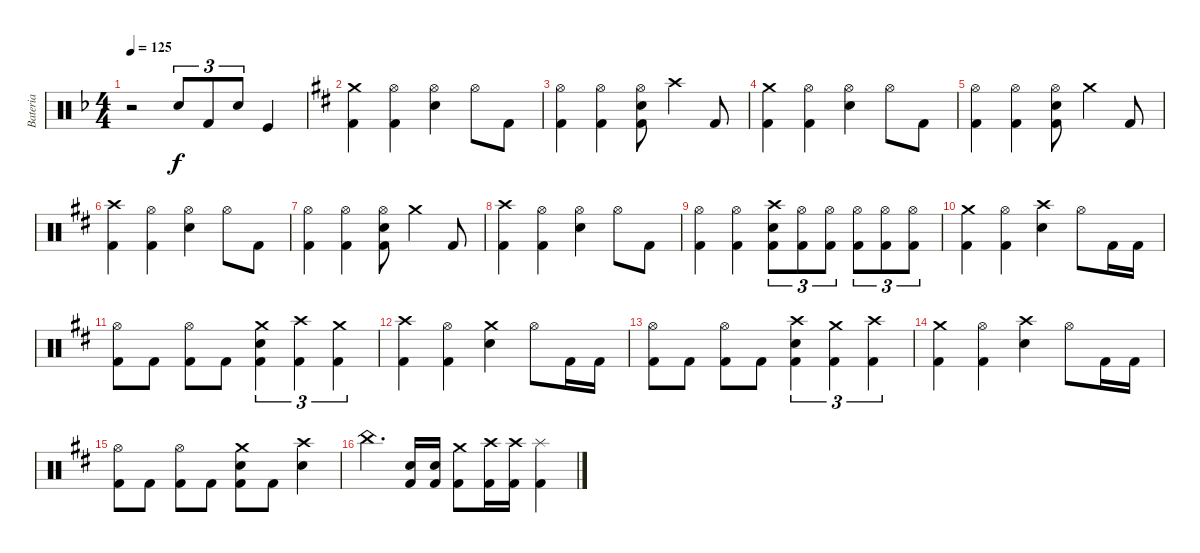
\track ("Bateria" "Bateria") {instrument percussion}
\staff {score}
\articulation defaults
\ts (4 4)
\tempo 125
\clef neutral
\ks f
r.2{dy f volume 4} "Electric Snare (hit)".8{tu (3 2)} "Kick (hit) 2".8{tu (3 2)} "Snare (hit) 2".8{tu (3 2)} "Kick (hit)".4 |
\ks d
("Crash medium (hit)" "Kick (hit) 2").4 ("Hi-Hat (open)" "Kick (hit) 2").4 ("Hi-Hat (open)" "Electric Snare (hit)").4 "Hi-Hat (open)".8 "Kick (hit) 2".8 |
("Hi-Hat (open)" "Kick (hit) 2").4 ("Hi-Hat (open)" "Kick (hit) 2").4 ("Hi-Hat (open)" "Electric Snare (hit)" "Kick (hit) 2").8 "Crash high (hit)".4 "Kick (hit) 2".8 |
("Crash medium (hit)" "Kick (hit) 2").4 ("Hi-Hat (open)" "Kick (hit) 2").4 ("Hi-Hat (open)" "Electric Snare (hit)").4 "Hi-Hat (open)".8 "Kick (hit) 2".8 |
("Hi-Hat (open)" "Kick (hit) 2").4 ("Hi-Hat (open)" "Kick (hit) 2").4 ("Hi-Hat (open)" "Electric Snare (hit)" "Kick (hit) 2").8 "Crash medium (hit)".4 "Kick (hit) 2".8 |
("Crash high (hit)" "Kick (hit) 2").4 ("Hi-Hat (open)" "Kick (hit) 2").4 ("Hi-Hat (open)" "Electric Snare (hit)").4 "Hi-Hat (open)".8 "Kick (hit) 2".8 |
("Hi-Hat (open)" "Kick (hit) 2").4 ("Hi-Hat (open)" "Kick (hit) 2").4 ("Hi-Hat (open)" "Electric Snare (hit)" "Kick (hit) 2").8 "Crash medium (hit)".4 "Kick (hit) 2".8 |
("Crash high (hit)" "Kick (hit) 2").4 ("Hi-Hat (open)" "Kick (hit) 2").4 ("Hi-Hat (open)" "Electric Snare (hit)").4 "Hi-Hat (open)".8 "Kick (hit) 2".8 |
("Hi-Hat (open)" "Kick (hit) 2").4 ("Hi-Hat (open)" "Kick (hit) 2").4 ("Crash high (hit)" "Electric Snare (hit)" "Kick (hit) 2").8{tu (3 2)} ("Hi-Hat (open)" "Kick (hit) 2").8{tu (3 2)} ("Hi-Hat (open)" "Kick (hit) 2").8{tu (3 2)} ("Hi-Hat (open)" "Kick (hit) 2").8{tu (3 2)} ("Hi-Hat (open)" "Kick (hit) 2").8{tu (3 2)} ("Hi-Hat (open)" "Kick (hit) 2").8{tu (3 2)} |
("Crash medium (hit)" "Kick (hit) 2").4 ("Hi-Hat (open)" "Kick (hit) 2").4 ("Crash high (hit)" "Electric Snare (hit)").4 "Hi-Hat (open)".8 "Kick (hit) 2".16 "Kick (hit) 2".16 |
("Hi-Hat (open)" "Kick (hit) 2").8 "Kick (hit) 2".8 ("Hi-Hat (open)" "Kick (hit) 2").8 "Kick (hit) 2".8 ("Crash medium (hit)" "Electric Snare (hit)" "Kick (hit) 2").4{tu (3 2)} ("Crash high (hit)" "Kick (hit) 2").4{tu (3 2)} ("Crash medium (hit)" "Kick (hit) 2").4{tu (3 2)} |
("Crash high (hit)" "Kick (hit) 2").4 ("Hi-Hat (open)" "Kick (hit) 2").4 ("Crash medium (hit)" "Electric Snare (hit)").4 "Hi-Hat (open)".8 "Kick (hit) 2".16 "Kick (hit) 2".16 |
("Hi-Hat (open)" "Kick (hit) 2").8 "Kick (hit) 2".8 ("Hi-Hat (open)" "Kick (hit) 2").8 "Kick (hit) 2".8 ("Crash high (hit)" "Electric Snare (hit)" "Kick (hit) 2").4{tu (3 2)} ("Crash medium (hit)" "Kick (hit) 2").4{tu (3 2)} ("Crash high (hit)" "Kick (hit) 2").4{tu (3 2)} |
("Crash medium (hit)" "Kick (hit) 2").4 ("Hi-Hat (open)" "Kick (hit) 2").4 ("Crash high (hit)" "Electric Snare (hit)").4 "Hi-Hat (open)".8 "Kick (hit) 2".16 "Kick (hit) 2".16 |
("Hi-Hat (open)" "Kick (hit) 2").8 "Kick (hit) 2".8 ("Hi-Hat (open)" "Kick (hit) 2").8 "Kick (hit) 2".8 ("Crash medium (hit)" "Electric Snare (hit)" "Kick (hit) 2").8 "Kick (hit) 2".8 ("Crash high (hit)" "Electric Snare (hit)").4 |
"China (hit)".4{d} ("Electric Snare (hit)" "Kick (hit) 2").16 ("Electric Snare (hit)" "Kick (hit) 2").16 ("Crash medium (hit)" "Kick (hit) 2").8 ("Crash high (hit)" "Kick (hit) 2").16 ("Crash high (hit)" "Kick (hit) 2").16 ("Splash (hit)" "Kick (hit) 2").4
